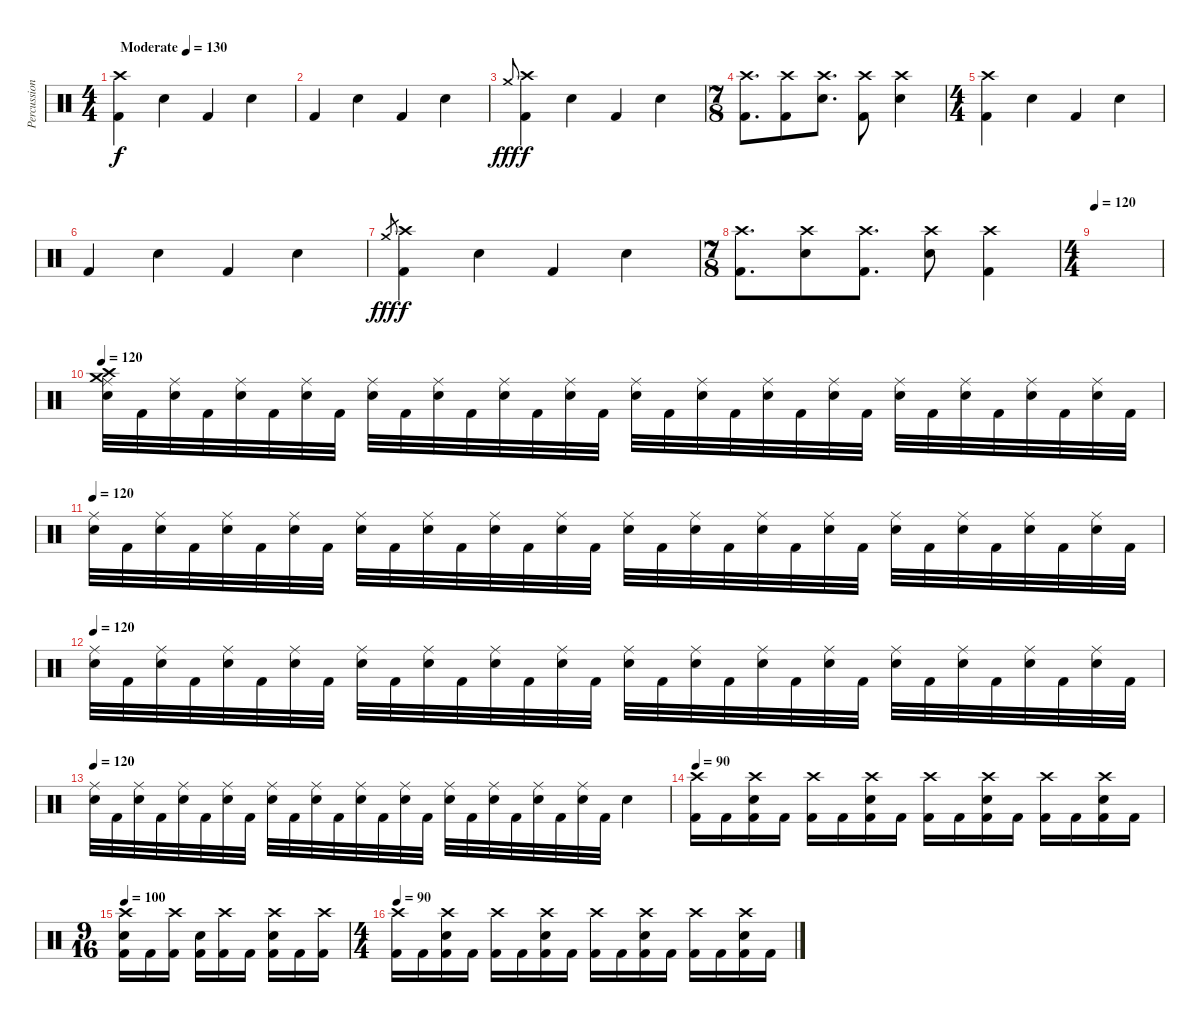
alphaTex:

\track ("Percussion" "Percussion") {instrument percussion}
\staff {score}
\articulation defaults
\ts (4 4)
\tempo (130 "Moderate")
\clef neutral
\ks c
("Crash high (hit)" "Kick (hit) 2").4{dy f} "Snare (hit) 2".4 "Kick (hit) 2".4 "Snare (hit) 2".4 |
"Kick (hit) 2".4 "Snare (hit) 2".4 "Kick (hit) 2".4 "Snare (hit) 2".4 |
"Crash medium (hit)".8{gr onbeat dy fff} ("Crash high (hit)" "Kick (hit) 2").4{dy f} "Snare (hit) 2".4 "Kick (hit) 2".4 "Snare (hit) 2".4 |
\ts (7 8)
("Crash high (hit)" "Kick (hit) 2").8{d} ("Crash high (hit)" "Kick (hit) 2").8 ("Crash high (hit)" "Snare (hit) 2").8{d} ("Crash high (hit)" "Kick (hit) 2").8 ("Crash high (hit)" "Snare (hit) 2").4 |
\ts (4 4)
("Crash high (hit)" "Kick (hit) 2").4 "Snare (hit) 2".4 "Kick (hit) 2".4 "Snare (hit) 2".4 |
"Kick (hit) 2".4 "Snare (hit) 2".4 "Kick (hit) 2".4 "Snare (hit) 2".4 |
"Crash medium (hit)".8{gr dy fff} ("Crash high (hit)" "Kick (hit) 2").4{dy f} "Snare (hit) 2".4 "Kick (hit) 2".4 "Snare (hit) 2".4 |
\ts (7 8)
("Crash high (hit)" "Kick (hit) 2").8{d} ("Crash high (hit)" "Snare (hit) 2").8 ("Crash high (hit)" "Kick (hit) 2").8{d} ("Crash high (hit)" "Snare (hit) 2").8 ("Crash high (hit)" "Kick (hit) 2").4 |
\ts (4 4)
\tempo 120
|
\tempo 120
("Crash medium (hit)" "Crash high (hit)" "Ride (middle)" "Snare (hit) 2").32 "Kick (hit) 2".32 ("Ride (middle)" "Snare (hit) 2").32 "Kick (hit) 2".32 ("Ride (middle)" "Snare (hit) 2").32 "Kick (hit) 2".32 ("Ride (middle)" "Snare (hit) 2").32 "Kick (hit) 2".32 ("Ride (middle)" "Snare (hit) 2").32 "Kick (hit) 2".32 ("Ride (middle)" "Snare (hit) 2").32 "Kick (hit) 2".32 ("Ride (middle)" "Snare (hit) 2").32 "Kick (hit) 2".32 ("Ride (middle)" "Snare (hit) 2").32 "Kick (hit) 2".32 ("Ride (middle)" "Snare (hit) 2").32 "Kick (hit) 2".32 ("Ride (middle)" "Snare (hit) 2").32 "Kick (hit) 2".32 ("Ride (middle)" "Snare (hit) 2").32 "Kick (hit) 2".32 ("Ride (middle)" "Snare (hit) 2").32 "Kick (hit) 2".32 ("Ride (middle)" "Snare (hit) 2").32 "Kick (hit) 2".32 ("Ride (middle)" "Snare (hit) 2").32 "Kick (hit) 2".32 ("Ride (middle)" "Snare (hit) 2").32 "Kick (hit) 2".32 ("Ride (middle)" "Snare (hit) 2").32 "Kick (hit) 2".32 |
\tempo 120
("Ride (middle)" "Snare (hit) 2").32 "Kick (hit) 2".32 ("Ride (middle)" "Snare (hit) 2").32 "Kick (hit) 2".32 ("Ride (middle)" "Snare (hit) 2").32 "Kick (hit) 2".32 ("Ride (middle)" "Snare (hit) 2").32 "Kick (hit) 2".32 ("Ride (middle)" "Snare (hit) 2").32 "Kick (hit) 2".32 ("Ride (middle)" "Snare (hit) 2").32 "Kick (hit) 2".32 ("Ride (middle)" "Snare (hit) 2").32 "Kick (hit) 2".32 ("Ride (middle)" "Snare (hit) 2").32 "Kick (hit) 2".32 ("Ride (middle)" "Snare (hit) 2").32 "Kick (hit) 2".32 ("Ride (middle)" "Snare (hit) 2").32 "Kick (hit) 2".32 ("Ride (middle)" "Snare (hit) 2").32 "Kick (hit) 2".32 ("Ride (middle)" "Snare (hit) 2").32 "Kick (hit) 2".32 ("Ride (middle)" "Snare (hit) 2").32 "Kick (hit) 2".32 ("Ride (middle)" "Snare (hit) 2").32 "Kick (hit) 2".32 ("Ride (middle)" "Snare (hit) 2").32 "Kick (hit) 2".32 ("Ride (middle)" "Snare (hit) 2").32 "Kick (hit) 2".32 |
\tempo 120
("Ride (middle)" "Snare (hit) 2").32 "Kick (hit) 2".32 ("Ride (middle)" "Snare (hit) 2").32 "Kick (hit) 2".32 ("Ride (middle)" "Snare (hit) 2").32 "Kick (hit) 2".32 ("Ride (middle)" "Snare (hit) 2").32 "Kick (hit) 2".32 ("Ride (middle)" "Snare (hit) 2").32 "Kick (hit) 2".32 ("Ride (middle)" "Snare (hit) 2").32 "Kick (hit) 2".32 ("Ride (middle)" "Snare (hit) 2").32 "Kick (hit) 2".32 ("Ride (middle)" "Snare (hit) 2").32 "Kick (hit) 2".32 ("Ride (middle)" "Snare (hit) 2").32 "Kick (hit) 2".32 ("Ride (middle)" "Snare (hit) 2").32 "Kick (hit) 2".32 ("Ride (middle)" "Snare (hit) 2").32 "Kick (hit) 2".32 ("Ride (middle)" "Snare (hit) 2").32 "Kick (hit) 2".32 ("Ride (middle)" "Snare (hit) 2").32 "Kick (hit) 2".32 ("Ride (middle)" "Snare (hit) 2").32 "Kick (hit) 2".32 ("Ride (middle)" "Snare (hit) 2").32 "Kick (hit) 2".32 ("Ride (middle)" "Snare (hit) 2").32 "Kick (hit) 2".32 |
\tempo 120
("Ride (middle)" "Snare (hit) 2").32 "Kick (hit) 2".32 ("Ride (middle)" "Snare (hit) 2").32 "Kick (hit) 2".32 ("Ride (middle)" "Snare (hit) 2").32 "Kick (hit) 2".32 ("Ride (middle)" "Snare (hit) 2").32 "Kick (hit) 2".32 ("Ride (middle)" "Snare (hit) 2").32 "Kick (hit) 2".32 ("Ride (middle)" "Snare (hit) 2").32 "Kick (hit) 2".32 ("Ride (middle)" "Snare (hit) 2").32 "Kick (hit) 2".32 ("Ride (middle)" "Snare (hit) 2").32 "Kick (hit) 2".32 ("Ride (middle)" "Snare (hit) 2").32 "Kick (hit) 2".32 ("Ride (middle)" "Snare (hit) 2").32 "Kick (hit) 2".32 ("Ride (middle)" "Snare (hit) 2").32 "Kick (hit) 2".32 ("Ride (middle)" "Snare (hit) 2").32 "Kick (hit) 2".32 "Snare (hit) 2".4 |
\tempo 120
\tempo 90
("Crash high (hit)" "Kick (hit) 2").16 "Kick (hit) 2".16 ("Crash high (hit)" "Snare (hit) 2" "Kick (hit) 2").16 "Kick (hit) 2".16 ("Crash high (hit)" "Kick (hit) 2").16 "Kick (hit) 2".16 ("Crash high (hit)" "Snare (hit) 2" "Kick (hit) 2").16 "Kick (hit) 2".16 ("Crash high (hit)" "Kick (hit) 2").16 "Kick (hit) 2".16 ("Crash high (hit)" "Snare (hit) 2" "Kick (hit) 2").16 "Kick (hit) 2".16 ("Crash high (hit)" "Kick (hit) 2").16 "Kick (hit) 2".16 ("Crash high (hit)" "Snare (hit) 2" "Kick (hit) 2").16 "Kick (hit) 2".16 |
\ts (9 16)
\tempo 100
("Crash high (hit)" "Snare (hit) 2" "Kick (hit) 2").16 "Kick (hit) 2".16 ("Crash high (hit)" "Kick (hit) 2").16 ("Snare (hit) 2" "Kick (hit) 2").16 ("Crash high (hit)" "Kick (hit) 2").16 "Kick (hit) 2".16 ("Crash high (hit)" "Snare (hit) 2" "Kick (hit) 2").16 "Kick (hit) 2".16 ("Crash high (hit)" "Kick (hit) 2").16 |
\ts (4 4)
\tempo 90
("Crash high (hit)" "Kick (hit) 2").16 "Kick (hit) 2".16 ("Crash high (hit)" "Snare (hit) 2" "Kick (hit) 2").16 "Kick (hit) 2".16 ("Crash high (hit)" "Kick (hit) 2").16 "Kick (hit) 2".16 ("Crash high (hit)" "Snare (hit) 2" "Kick (hit) 2").16 "Kick (hit) 2".16 ("Crash high (hit)" "Kick (hit) 2").16 "Kick (hit) 2".16 ("Crash high (hit)" "Snare (hit) 2" "Kick (hit) 2").16 "Kick (hit) 2".16 ("Crash high (hit)" "Kick (hit) 2").16 "Kick (hit) 2".16 ("Crash high (hit)" "Snare (hit) 2" "Kick (hit) 2").16 "Kick (hit) 2".16
